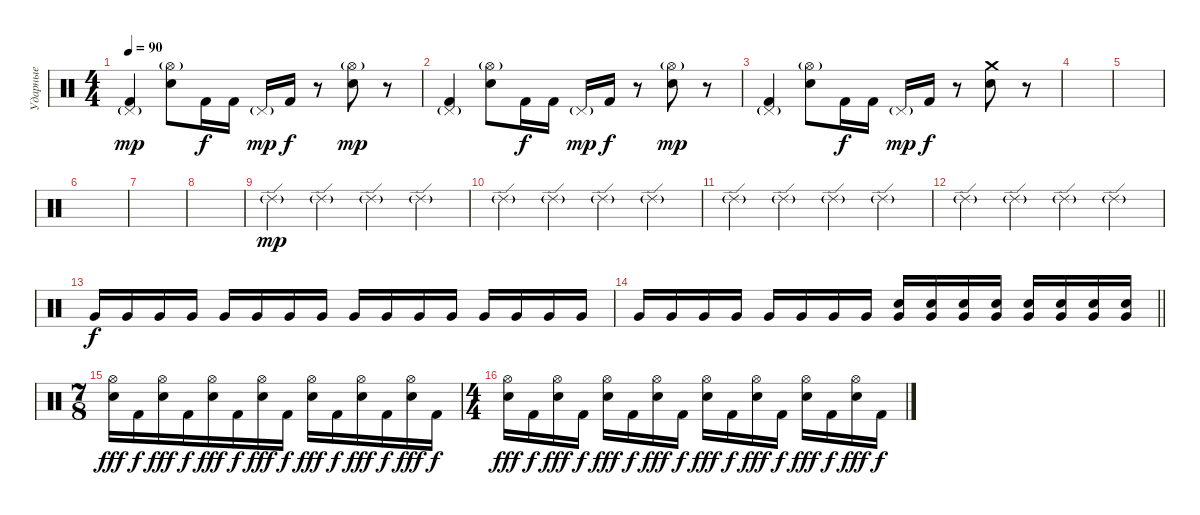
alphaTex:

\track ("Ударные" "Ударные") {instrument percussion}
\staff {score}
\articulation defaults
\ts (4 4)
\tempo 90
\clef neutral
\ks c
("Pedal Hi-Hat (hit)"{g} "Kick (hit) 2").4{dy mp} ("Hi-Hat (open)"{g} "Electric Snare (hit)").8 "Kick (hit) 2".16{dy f} "Kick (hit) 2".16 "Pedal Hi-Hat (hit)"{g}.16{dy mp} "Kick (hit) 2".16{dy f} r.8 ("Hi-Hat (open)"{g} "Electric Snare (hit)").8{dy mp} r.8 |
("Pedal Hi-Hat (hit)"{g} "Kick (hit) 2").4 ("Hi-Hat (open)"{g} "Electric Snare (hit)").8 "Kick (hit) 2".16{dy f} "Kick (hit) 2".16 "Pedal Hi-Hat (hit)"{g}.16{dy mp} "Kick (hit) 2".16{dy f} r.8 ("Hi-Hat (open)"{g} "Electric Snare (hit)").8{dy mp} r.8 |
("Pedal Hi-Hat (hit)"{g} "Kick (hit) 2").4 ("Hi-Hat (open)"{g} "Electric Snare (hit)").8 "Kick (hit) 2".16{dy f} "Kick (hit) 2".16 "Pedal Hi-Hat (hit)"{g}.16{dy mp} "Kick (hit) 2".16{dy f} r.8 ("Crash medium (hit)" "Electric Snare (hit)").8 r.8 |
|
|
|
|
|
"Ride (edge) 2"{g}.4{dy mp} "Ride (edge) 2"{g}.4 "Ride (edge) 2"{g}.4 "Ride (edge) 2"{g}.4 |
"Ride (edge) 2"{g}.4 "Ride (edge) 2"{g}.4 "Ride (edge) 2"{g}.4 "Ride (edge) 2"{g}.4 |
"Ride (edge) 2"{g}.4 "Ride (edge) 2"{g}.4 "Ride (edge) 2"{g}.4 "Ride (edge) 2"{g}.4 |
"Ride (edge) 2"{g}.4 "Ride (edge) 2"{g}.4 "Ride (edge) 2"{g}.4 "Ride (edge) 2"{g}.4 |
"Very Low Tom (hit)".16{dy f} "Very Low Tom (hit)".16 "Very Low Tom (hit)".16 "Very Low Tom (hit)".16 "Very Low Tom (hit)".16 "Very Low Tom (hit)".16 "Very Low Tom (hit)".16 "Very Low Tom (hit)".16 "Very Low Tom (hit)".16 "Very Low Tom (hit)".16 "Very Low Tom (hit)".16 "Very Low Tom (hit)".16 "Very Low Tom (hit)".16 "Very Low Tom (hit)".16 "Very Low Tom (hit)".16 "Very Low Tom (hit)".16 |
\barLineRight lightlight "Very Low Tom (hit)".16{volume 16} "Very Low Tom (hit)".16 "Very Low Tom (hit)".16 "Very Low Tom (hit)".16 "Very Low Tom (hit)".16 "Very Low Tom (hit)".16 "Very Low Tom (hit)".16 "Very Low Tom (hit)".16
("Electric Snare (hit)" "Very Low Tom (hit)").16 ("Electric Snare (hit)" "Very Low Tom (hit)").16 ("Electric Snare (hit)" "Very Low Tom (hit)").16 ("Electric Snare (hit)" "Very Low Tom (hit)").16 ("Electric Snare (hit)" "Very Low Tom (hit)").16 ("Electric Snare (hit)" "Very Low Tom (hit)").16 ("Electric Snare (hit)" "Very Low Tom (hit)").16 ("Electric Snare (hit)" "Very Low Tom (hit)").16 |
\ts (7 8)
("Hi-Hat (open)" "Electric Snare (hit)").16{dy fff} "Kick (hit) 2".16{dy f} ("Hi-Hat (open)" "Electric Snare (hit)").16{dy fff} "Kick (hit) 2".16{dy f} ("Hi-Hat (open)" "Electric Snare (hit)").16{dy fff} "Kick (hit) 2".16{dy f} ("Hi-Hat (open)" "Electric Snare (hit)").16{dy fff} "Kick (hit) 2".16{dy f} ("Hi-Hat (open)" "Electric Snare (hit)").16{dy fff} "Kick (hit) 2".16{dy f} ("Hi-Hat (open)" "Electric Snare (hit)").16{dy fff} "Kick (hit) 2".16{dy f} ("Hi-Hat (open)" "Electric Snare (hit)").16{dy fff} "Kick (hit) 2".16{dy f} |
\ts (4 4)
("Hi-Hat (open)" "Electric Snare (hit)").16{dy fff} "Kick (hit) 2".16{dy f} ("Hi-Hat (open)" "Electric Snare (hit)").16{dy fff} "Kick (hit) 2".16{dy f} ("Hi-Hat (open)" "Electric Snare (hit)").16{dy fff} "Kick (hit) 2".16{dy f} ("Hi-Hat (open)" "Electric Snare (hit)").16{dy fff} "Kick (hit) 2".16{dy f} ("Hi-Hat (open)" "Electric Snare (hit)").16{dy fff} "Kick (hit) 2".16{dy f} ("Hi-Hat (open)" "Electric Snare (hit)").16{dy fff} "Kick (hit) 2".16{dy f} ("Hi-Hat (open)" "Electric Snare (hit)").16{dy fff} "Kick (hit) 2".16{dy f} ("Hi-Hat (open)" "Electric Snare (hit)").16{dy fff} "Kick (hit) 2".16{dy f}
